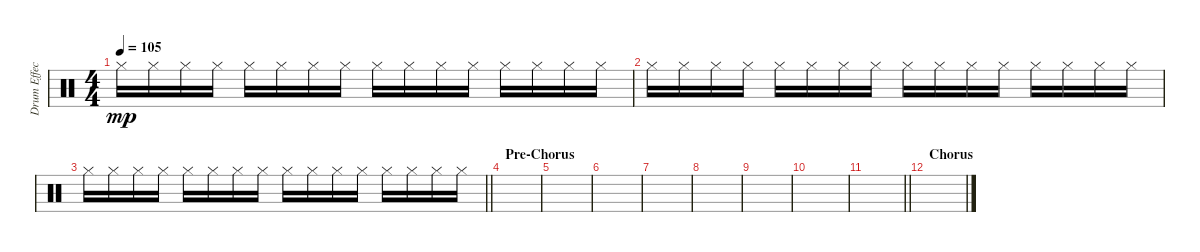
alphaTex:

\track ("Drum Effects" "Drum Effec") {instrument percussion}
\staff {score}
\articulation defaults
\ts (4 4)
\tempo 105
\clef neutral
\ks c "Hi-Hat (closed)".16{dy mp} "Hi-Hat (closed)".16 "Hi-Hat (closed)".16 "Hi-Hat (closed)".16 "Hi-Hat (closed)".16 "Hi-Hat (closed)".16 "Hi-Hat (closed)".16 "Hi-Hat (closed)".16 "Hi-Hat (closed)".16 "Hi-Hat (closed)".16 "Hi-Hat (closed)".16 "Hi-Hat (closed)".16 "Hi-Hat (closed)".16 "Hi-Hat (closed)".16 "Hi-Hat (closed)".16 "Hi-Hat (closed)".16
|
"Hi-Hat (closed)".16 "Hi-Hat (closed)".16 "Hi-Hat (closed)".16 "Hi-Hat (closed)".16 "Hi-Hat (closed)".16 "Hi-Hat (closed)".16 "Hi-Hat (closed)".16 "Hi-Hat (closed)".16 "Hi-Hat (closed)".16 "Hi-Hat (closed)".16 "Hi-Hat (closed)".16 "Hi-Hat (closed)".16 "Hi-Hat (closed)".16 "Hi-Hat (closed)".16 "Hi-Hat (closed)".16 "Hi-Hat (closed)".16 |
\barLineRight lightlight "Hi-Hat (closed)".16 "Hi-Hat (closed)".16 "Hi-Hat (closed)".16 "Hi-Hat (closed)".16 "Hi-Hat (closed)".16 "Hi-Hat (closed)".16 "Hi-Hat (closed)".16 "Hi-Hat (closed)".16 "Hi-Hat (closed)".16 "Hi-Hat (closed)".16 "Hi-Hat (closed)".16 "Hi-Hat (closed)".16 "Hi-Hat (closed)".16 "Hi-Hat (closed)".16 "Hi-Hat (closed)".16 "Hi-Hat (closed)".16
|
\section ("" "Pre-Chorus")
|
|
|
|
|
|
|
\barLineRight lightlight
|
\section ("" "Chorus")
